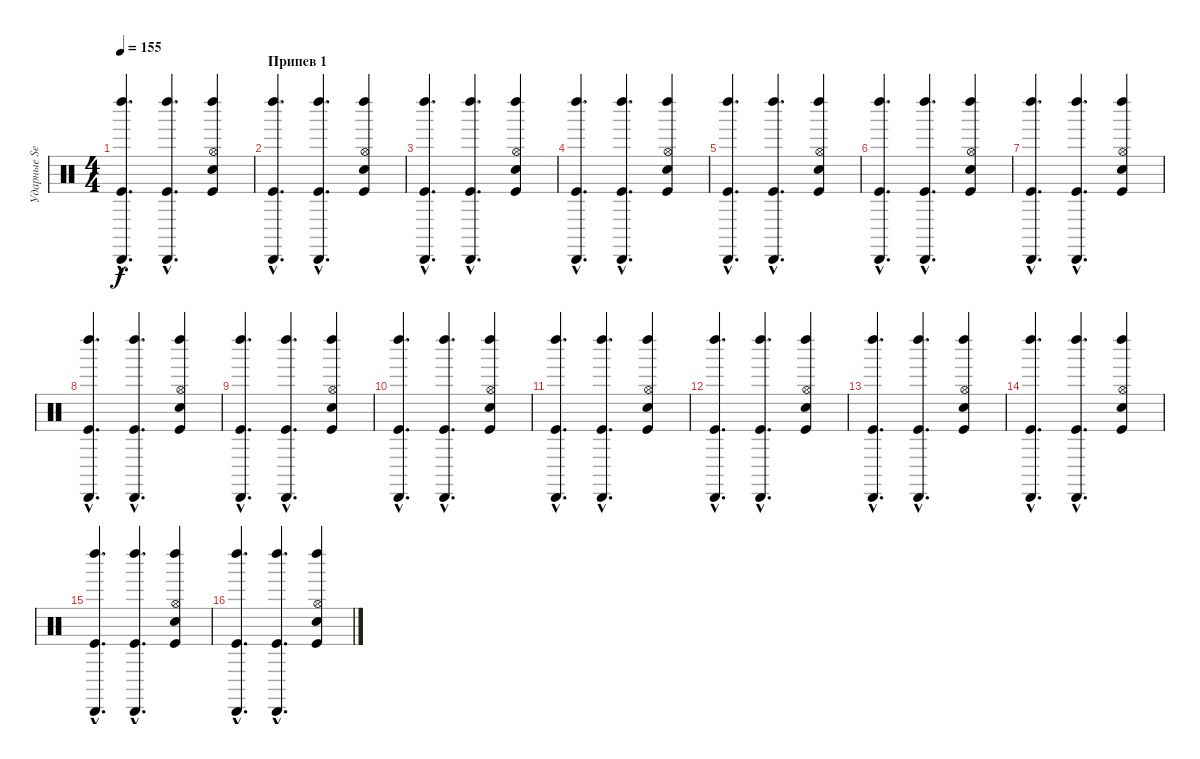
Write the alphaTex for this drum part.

\track ("Ударные Serge Petrone" "Ударные Se") {instrument percussion}
\staff {score}
\articulation defaults
\ts (4 4)
\tempo 155
\clef neutral
\ks c
("Cabasa (hit)"{hac} "Kick (hit)"{hac} "Left Maraca (hit)"{hac}).4{d dy f} ("Cabasa (hit)"{hac} "Kick (hit)"{hac} "Left Maraca (hit)"{hac}).4{d} ("Hi-Hat (open)" "Hand Clap (hit)" "Kick (hit)" "Left Maraca (hit)").4 |
\section ("" "Припев 1")
("Cabasa (hit)"{hac} "Kick (hit)"{hac} "Left Maraca (hit)"{hac}).4{d} ("Cabasa (hit)"{hac} "Kick (hit)"{hac} "Left Maraca (hit)"{hac}).4{d} ("Hi-Hat (open)" "Hand Clap (hit)" "Kick (hit)" "Left Maraca (hit)").4 |
("Cabasa (hit)"{hac} "Kick (hit)"{hac} "Left Maraca (hit)"{hac}).4{d} ("Cabasa (hit)"{hac} "Kick (hit)"{hac} "Left Maraca (hit)"{hac}).4{d} ("Hi-Hat (open)" "Hand Clap (hit)" "Kick (hit)" "Left Maraca (hit)").4 |
("Cabasa (hit)"{hac} "Kick (hit)"{hac} "Left Maraca (hit)"{hac}).4{d} ("Cabasa (hit)"{hac} "Kick (hit)"{hac} "Left Maraca (hit)"{hac}).4{d} ("Hi-Hat (open)" "Hand Clap (hit)" "Kick (hit)" "Left Maraca (hit)").4 |
("Cabasa (hit)"{hac} "Kick (hit)"{hac} "Left Maraca (hit)"{hac}).4{d} ("Cabasa (hit)"{hac} "Kick (hit)"{hac} "Left Maraca (hit)"{hac}).4{d} ("Hi-Hat (open)" "Hand Clap (hit)" "Kick (hit)" "Left Maraca (hit)").4 |
("Cabasa (hit)"{hac} "Kick (hit)"{hac} "Left Maraca (hit)"{hac}).4{d} ("Cabasa (hit)"{hac} "Kick (hit)"{hac} "Left Maraca (hit)"{hac}).4{d} ("Hi-Hat (open)" "Hand Clap (hit)" "Kick (hit)" "Left Maraca (hit)").4 |
("Cabasa (hit)"{hac} "Kick (hit)"{hac} "Left Maraca (hit)"{hac}).4{d} ("Cabasa (hit)"{hac} "Kick (hit)"{hac} "Left Maraca (hit)"{hac}).4{d} ("Hi-Hat (open)" "Hand Clap (hit)" "Kick (hit)" "Left Maraca (hit)").4 |
("Cabasa (hit)"{hac} "Kick (hit)"{hac} "Left Maraca (hit)"{hac}).4{d} ("Cabasa (hit)"{hac} "Kick (hit)"{hac} "Left Maraca (hit)"{hac}).4{d} ("Hi-Hat (open)" "Hand Clap (hit)" "Kick (hit)" "Left Maraca (hit)").4 |
("Cabasa (hit)"{hac} "Kick (hit)"{hac} "Left Maraca (hit)"{hac}).4{d} ("Cabasa (hit)"{hac} "Kick (hit)"{hac} "Left Maraca (hit)"{hac}).4{d} ("Hi-Hat (open)" "Hand Clap (hit)" "Kick (hit)" "Left Maraca (hit)").4 |
("Cabasa (hit)"{hac} "Kick (hit)"{hac} "Left Maraca (hit)"{hac}).4{d} ("Cabasa (hit)"{hac} "Kick (hit)"{hac} "Left Maraca (hit)"{hac}).4{d} ("Hi-Hat (open)" "Hand Clap (hit)" "Kick (hit)" "Left Maraca (hit)").4 |
("Cabasa (hit)"{hac} "Kick (hit)"{hac} "Left Maraca (hit)"{hac}).4{d} ("Cabasa (hit)"{hac} "Kick (hit)"{hac} "Left Maraca (hit)"{hac}).4{d} ("Hi-Hat (open)" "Hand Clap (hit)" "Kick (hit)" "Left Maraca (hit)").4 |
("Cabasa (hit)"{hac} "Kick (hit)"{hac} "Left Maraca (hit)"{hac}).4{d} ("Cabasa (hit)"{hac} "Kick (hit)"{hac} "Left Maraca (hit)"{hac}).4{d} ("Hi-Hat (open)" "Hand Clap (hit)" "Kick (hit)" "Left Maraca (hit)").4 |
("Cabasa (hit)"{hac} "Kick (hit)"{hac} "Left Maraca (hit)"{hac}).4{d} ("Cabasa (hit)"{hac} "Kick (hit)"{hac} "Left Maraca (hit)"{hac}).4{d} ("Hi-Hat (open)" "Hand Clap (hit)" "Kick (hit)" "Left Maraca (hit)").4 |
("Cabasa (hit)"{hac} "Kick (hit)"{hac} "Left Maraca (hit)"{hac}).4{d} ("Cabasa (hit)"{hac} "Kick (hit)"{hac} "Left Maraca (hit)"{hac}).4{d} ("Hi-Hat (open)" "Hand Clap (hit)" "Kick (hit)" "Left Maraca (hit)").4 |
("Cabasa (hit)"{hac} "Kick (hit)"{hac} "Left Maraca (hit)"{hac}).4{d} ("Cabasa (hit)"{hac} "Kick (hit)"{hac} "Left Maraca (hit)"{hac}).4{d} ("Hi-Hat (open)" "Hand Clap (hit)" "Kick (hit)" "Left Maraca (hit)").4 |
("Cabasa (hit)"{hac} "Kick (hit)"{hac} "Left Maraca (hit)"{hac}).4{d} ("Cabasa (hit)"{hac} "Kick (hit)"{hac} "Left Maraca (hit)"{hac}).4{d} ("Hi-Hat (open)" "Hand Clap (hit)" "Kick (hit)" "Left Maraca (hit)").4
